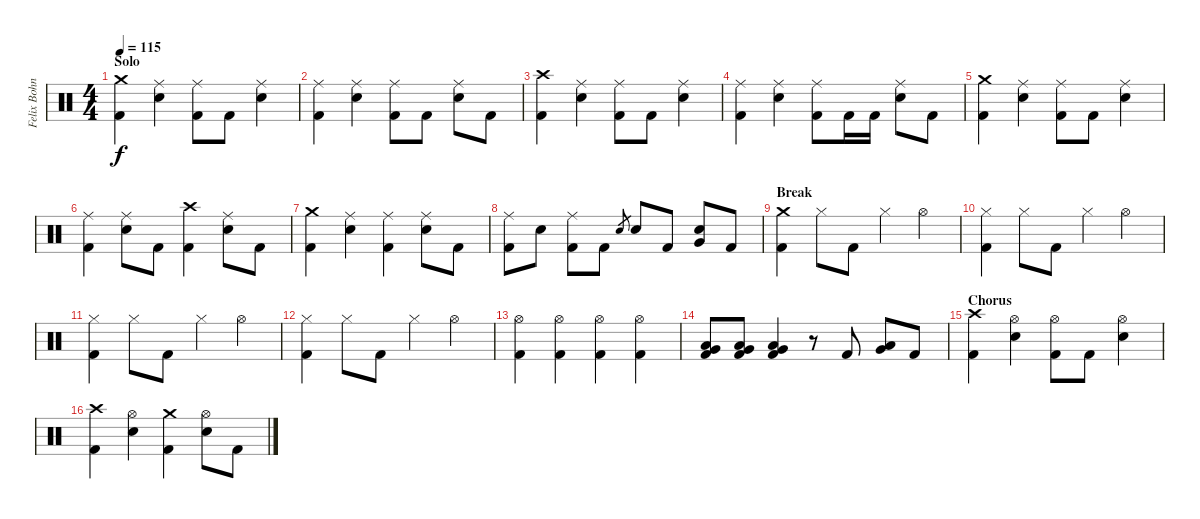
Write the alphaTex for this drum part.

\track ("Felix Bohnke" "Felix Bohn") {instrument percussion}
\staff {score}
\articulation defaults
\ts (4 4)
\section ("" "Solo")
\tempo 115
\clef neutral
\ks c
("Crash medium (hit)" "Kick (hit) 2").4{dy f} ("Ride (middle)" "Electric Snare (hit)").4 ("Ride (middle)" "Kick (hit) 2").8 "Kick (hit) 2".8 ("Ride (middle)" "Electric Snare (hit)").4 |
("Ride (middle)" "Kick (hit) 2").4 ("Ride (middle)" "Electric Snare (hit)").4 ("Ride (middle)" "Kick (hit) 2").8 "Kick (hit) 2".8 ("Ride (middle)" "Electric Snare (hit)").8 "Kick (hit) 2".8 |
("Crash high (hit)" "Kick (hit) 2").4 ("Ride (middle)" "Electric Snare (hit)").4 ("Ride (middle)" "Kick (hit) 2").8 "Kick (hit) 2".8 ("Ride (middle)" "Electric Snare (hit)").4 |
("Ride (middle)" "Kick (hit) 2").4 ("Ride (middle)" "Electric Snare (hit)").4 ("Ride (middle)" "Kick (hit) 2").8 "Kick (hit) 2".16 "Kick (hit) 2".16 ("Ride (middle)" "Electric Snare (hit)").8 "Kick (hit) 2".8 |
("Crash medium (hit)" "Kick (hit) 2").4 ("Ride (middle)" "Electric Snare (hit)").4 ("Ride (middle)" "Kick (hit) 2").8 "Kick (hit) 2".8 ("Ride (middle)" "Electric Snare (hit)").4 |
("Ride (middle)" "Kick (hit) 2").4 ("Ride (middle)" "Electric Snare (hit)").8 "Kick (hit) 2".8 ("Crash high (hit)" "Kick (hit) 2").4 ("Ride (middle)" "Electric Snare (hit)").8 "Kick (hit) 2".8 |
("Crash medium (hit)" "Kick (hit) 2").4 ("Ride (middle)" "Electric Snare (hit)").4 ("Ride (middle)" "Kick (hit) 2").4 ("Ride (middle)" "Electric Snare (hit)").8 "Kick (hit) 2".8 |
("Ride (middle)" "Kick (hit) 2").8 "Electric Snare (hit)".8 ("Ride (middle)" "Kick (hit) 2").8 "Kick (hit) 2".8 "Electric Snare (hit)".8{gr} "Electric Snare (hit)".8 "Kick (hit) 2".8 ("Very Low Tom (hit)" "Electric Snare (hit)").8 "Kick (hit) 2".8 |
\section ("" "Break")
("Crash medium (hit)" "Kick (hit) 2").4 "Hi-Hat (closed)".8 "Kick (hit) 2".8 "Hi-Hat (closed)".4 "Hi-Hat (open)".4 |
("Hi-Hat (closed)" "Kick (hit) 2").4 "Hi-Hat (closed)".8 "Kick (hit) 2".8 "Hi-Hat (closed)".4 "Hi-Hat (open)".4 |
("Hi-Hat (closed)" "Kick (hit) 2").4 "Hi-Hat (closed)".8 "Kick (hit) 2".8 "Hi-Hat (closed)".4 "Hi-Hat (open)".4 |
("Hi-Hat (closed)" "Kick (hit) 2").4 "Hi-Hat (closed)".8 "Kick (hit) 2".8 "Hi-Hat (closed)".4 "Hi-Hat (open)".4 |
("Hi-Hat (open)" "Kick (hit) 2").4 ("Hi-Hat (open)" "Kick (hit) 2").4 ("Hi-Hat (open)" "Kick (hit) 2").4 ("Hi-Hat (open)" "Kick (hit) 2").4 |
("Low Floor Tom (hit)" "Very Low Tom (hit)" "Kick (hit) 2").8 ("Low Floor Tom (hit)" "Very Low Tom (hit)" "Kick (hit) 2").8 ("Low Floor Tom (hit)" "Very Low Tom (hit)" "Kick (hit) 2").4 r.8 "Kick (hit) 2".8 ("Low Floor Tom (hit)" "Very Low Tom (hit)").8 "Kick (hit) 2".8 |
\section ("" "Chorus")
("Crash high (hit)" "Kick (hit) 2").4 ("Hi-Hat (open)" "Electric Snare (hit)").4 ("Hi-Hat (open)" "Kick (hit) 2").8 "Kick (hit) 2".8 ("Hi-Hat (open)" "Electric Snare (hit)").4 |
("Crash high (hit)" "Kick (hit) 2").4 ("Hi-Hat (open)" "Electric Snare (hit)").4 ("Crash medium (hit)" "Kick (hit) 2").4 ("Hi-Hat (open)" "Electric Snare (hit)").8 "Kick (hit) 2".8
